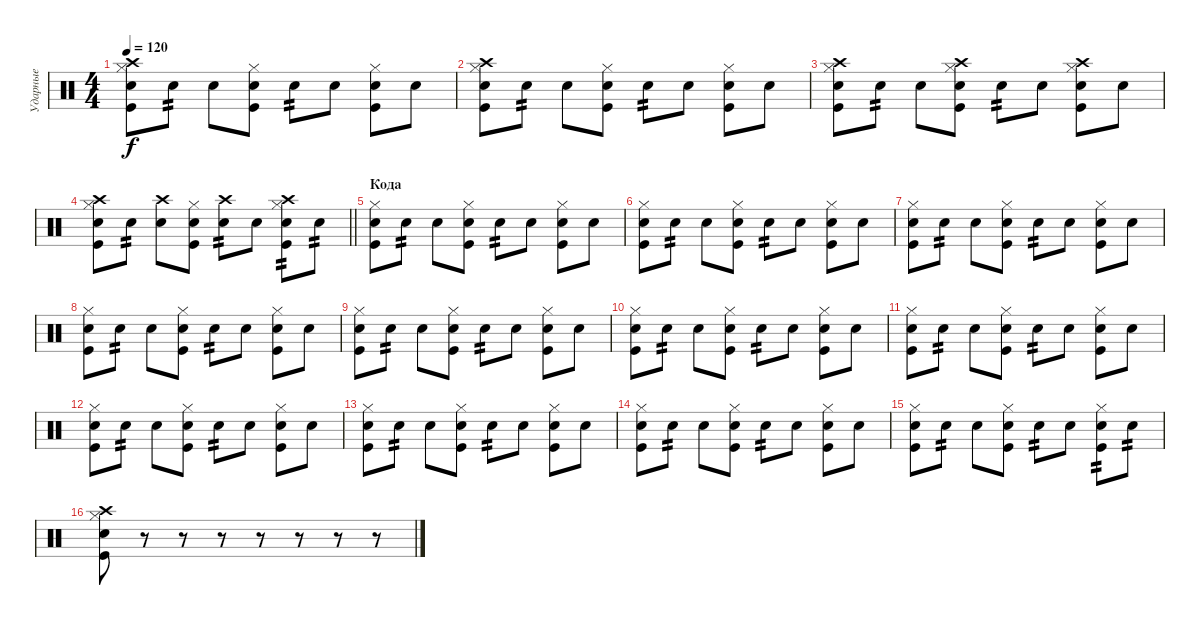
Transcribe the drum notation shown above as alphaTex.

\track ("Ударные" "Ударные") {instrument percussion}
\staff {score}
\articulation defaults
\ts (4 4)
\tempo 120
\clef neutral
\ks c
("Hi-Hat (closed)" "Crash high (hit)" "Electric Snare (hit)" "Kick (hit)").8{dy f} "Electric Snare (hit)".8{tp 2} "Electric Snare (hit)".8 ("Hi-Hat (closed)" "Electric Snare (hit)" "Kick (hit)").8 "Electric Snare (hit)".8{tp 2} "Electric Snare (hit)".8 ("Hi-Hat (closed)" "Electric Snare (hit)" "Kick (hit)").8 "Electric Snare (hit)".8 |
("Hi-Hat (closed)" "Crash high (hit)" "Electric Snare (hit)" "Kick (hit)").8 "Electric Snare (hit)".8{tp 2} "Electric Snare (hit)".8 ("Hi-Hat (closed)" "Electric Snare (hit)" "Kick (hit)").8 "Electric Snare (hit)".8{tp 2} "Electric Snare (hit)".8 ("Hi-Hat (closed)" "Electric Snare (hit)" "Kick (hit)").8 "Electric Snare (hit)".8 |
("Hi-Hat (closed)" "Crash high (hit)" "Electric Snare (hit)" "Kick (hit)").8 "Electric Snare (hit)".8{tp 2} "Electric Snare (hit)".8 ("Hi-Hat (closed)" "Crash high (hit)" "Electric Snare (hit)" "Kick (hit)").8 "Electric Snare (hit)".8{tp 2} "Electric Snare (hit)".8 ("Hi-Hat (closed)" "Crash high (hit)" "Electric Snare (hit)" "Kick (hit)").8 "Electric Snare (hit)".8 |
\barLineRight lightlight
("Hi-Hat (closed)" "Crash high (hit)" "Electric Snare (hit)" "Kick (hit)").8 "Electric Snare (hit)".8{tp 2} ("Crash high (hit)" "Electric Snare (hit)").8 ("Hi-Hat (closed)" "Electric Snare (hit)" "Kick (hit)").8 ("Crash high (hit)" "Electric Snare (hit)").8{tp 2} "Electric Snare (hit)".8 ("Hi-Hat (closed)" "Crash high (hit)" "Electric Snare (hit)" "Kick (hit)").8{tp 2} "Electric Snare (hit)".8{tp 2} |
\section ("" "Кода")
("Hi-Hat (closed)" "Electric Snare (hit)" "Kick (hit)").8 "Electric Snare (hit)".8{tp 2} "Electric Snare (hit)".8 ("Hi-Hat (closed)" "Electric Snare (hit)" "Kick (hit)").8 "Electric Snare (hit)".8{tp 2} "Electric Snare (hit)".8 ("Hi-Hat (closed)" "Electric Snare (hit)" "Kick (hit)").8 "Electric Snare (hit)".8 |
("Hi-Hat (closed)" "Electric Snare (hit)" "Kick (hit)").8 "Electric Snare (hit)".8{tp 2} "Electric Snare (hit)".8 ("Hi-Hat (closed)" "Electric Snare (hit)" "Kick (hit)").8 "Electric Snare (hit)".8{tp 2} "Electric Snare (hit)".8 ("Hi-Hat (closed)" "Electric Snare (hit)" "Kick (hit)").8 "Electric Snare (hit)".8 |
("Hi-Hat (closed)" "Electric Snare (hit)" "Kick (hit)").8 "Electric Snare (hit)".8{tp 2} "Electric Snare (hit)".8 ("Hi-Hat (closed)" "Electric Snare (hit)" "Kick (hit)").8 "Electric Snare (hit)".8{tp 2} "Electric Snare (hit)".8 ("Hi-Hat (closed)" "Electric Snare (hit)" "Kick (hit)").8 "Electric Snare (hit)".8 |
("Hi-Hat (closed)" "Electric Snare (hit)" "Kick (hit)").8 "Electric Snare (hit)".8{tp 2} "Electric Snare (hit)".8 ("Hi-Hat (closed)" "Electric Snare (hit)" "Kick (hit)").8 "Electric Snare (hit)".8{tp 2} "Electric Snare (hit)".8 ("Hi-Hat (closed)" "Electric Snare (hit)" "Kick (hit)").8 "Electric Snare (hit)".8 |
("Hi-Hat (closed)" "Electric Snare (hit)" "Kick (hit)").8 "Electric Snare (hit)".8{tp 2} "Electric Snare (hit)".8 ("Hi-Hat (closed)" "Electric Snare (hit)" "Kick (hit)").8 "Electric Snare (hit)".8{tp 2} "Electric Snare (hit)".8 ("Hi-Hat (closed)" "Electric Snare (hit)" "Kick (hit)").8 "Electric Snare (hit)".8 |
("Hi-Hat (closed)" "Electric Snare (hit)" "Kick (hit)").8 "Electric Snare (hit)".8{tp 2} "Electric Snare (hit)".8 ("Hi-Hat (closed)" "Electric Snare (hit)" "Kick (hit)").8 "Electric Snare (hit)".8{tp 2} "Electric Snare (hit)".8 ("Hi-Hat (closed)" "Electric Snare (hit)" "Kick (hit)").8 "Electric Snare (hit)".8 |
("Hi-Hat (closed)" "Electric Snare (hit)" "Kick (hit)").8 "Electric Snare (hit)".8{tp 2} "Electric Snare (hit)".8 ("Hi-Hat (closed)" "Electric Snare (hit)" "Kick (hit)").8 "Electric Snare (hit)".8{tp 2} "Electric Snare (hit)".8 ("Hi-Hat (closed)" "Electric Snare (hit)" "Kick (hit)").8 "Electric Snare (hit)".8 |
("Hi-Hat (closed)" "Electric Snare (hit)" "Kick (hit)").8 "Electric Snare (hit)".8{tp 2} "Electric Snare (hit)".8 ("Hi-Hat (closed)" "Electric Snare (hit)" "Kick (hit)").8 "Electric Snare (hit)".8{tp 2} "Electric Snare (hit)".8 ("Hi-Hat (closed)" "Electric Snare (hit)" "Kick (hit)").8 "Electric Snare (hit)".8 |
("Hi-Hat (closed)" "Electric Snare (hit)" "Kick (hit)").8 "Electric Snare (hit)".8{tp 2} "Electric Snare (hit)".8 ("Hi-Hat (closed)" "Electric Snare (hit)" "Kick (hit)").8 "Electric Snare (hit)".8{tp 2} "Electric Snare (hit)".8 ("Hi-Hat (closed)" "Electric Snare (hit)" "Kick (hit)").8 "Electric Snare (hit)".8 |
("Hi-Hat (closed)" "Electric Snare (hit)" "Kick (hit)").8 "Electric Snare (hit)".8{tp 2} "Electric Snare (hit)".8 ("Hi-Hat (closed)" "Electric Snare (hit)" "Kick (hit)").8 "Electric Snare (hit)".8{tp 2} "Electric Snare (hit)".8 ("Hi-Hat (closed)" "Electric Snare (hit)" "Kick (hit)").8 "Electric Snare (hit)".8 |
("Hi-Hat (closed)" "Electric Snare (hit)" "Kick (hit)").8 "Electric Snare (hit)".8{tp 2} "Electric Snare (hit)".8 ("Hi-Hat (closed)" "Electric Snare (hit)" "Kick (hit)").8 "Electric Snare (hit)".8{tp 2} "Electric Snare (hit)".8 ("Hi-Hat (closed)" "Electric Snare (hit)" "Kick (hit)").8{tp 2} "Electric Snare (hit)".8{tp 2} |
("Hi-Hat (closed)" "Crash high (hit)" "Electric Snare (hit)" "Kick (hit)").8 r.8 r.8 r.8 r.8 r.8 r.8 r.8
